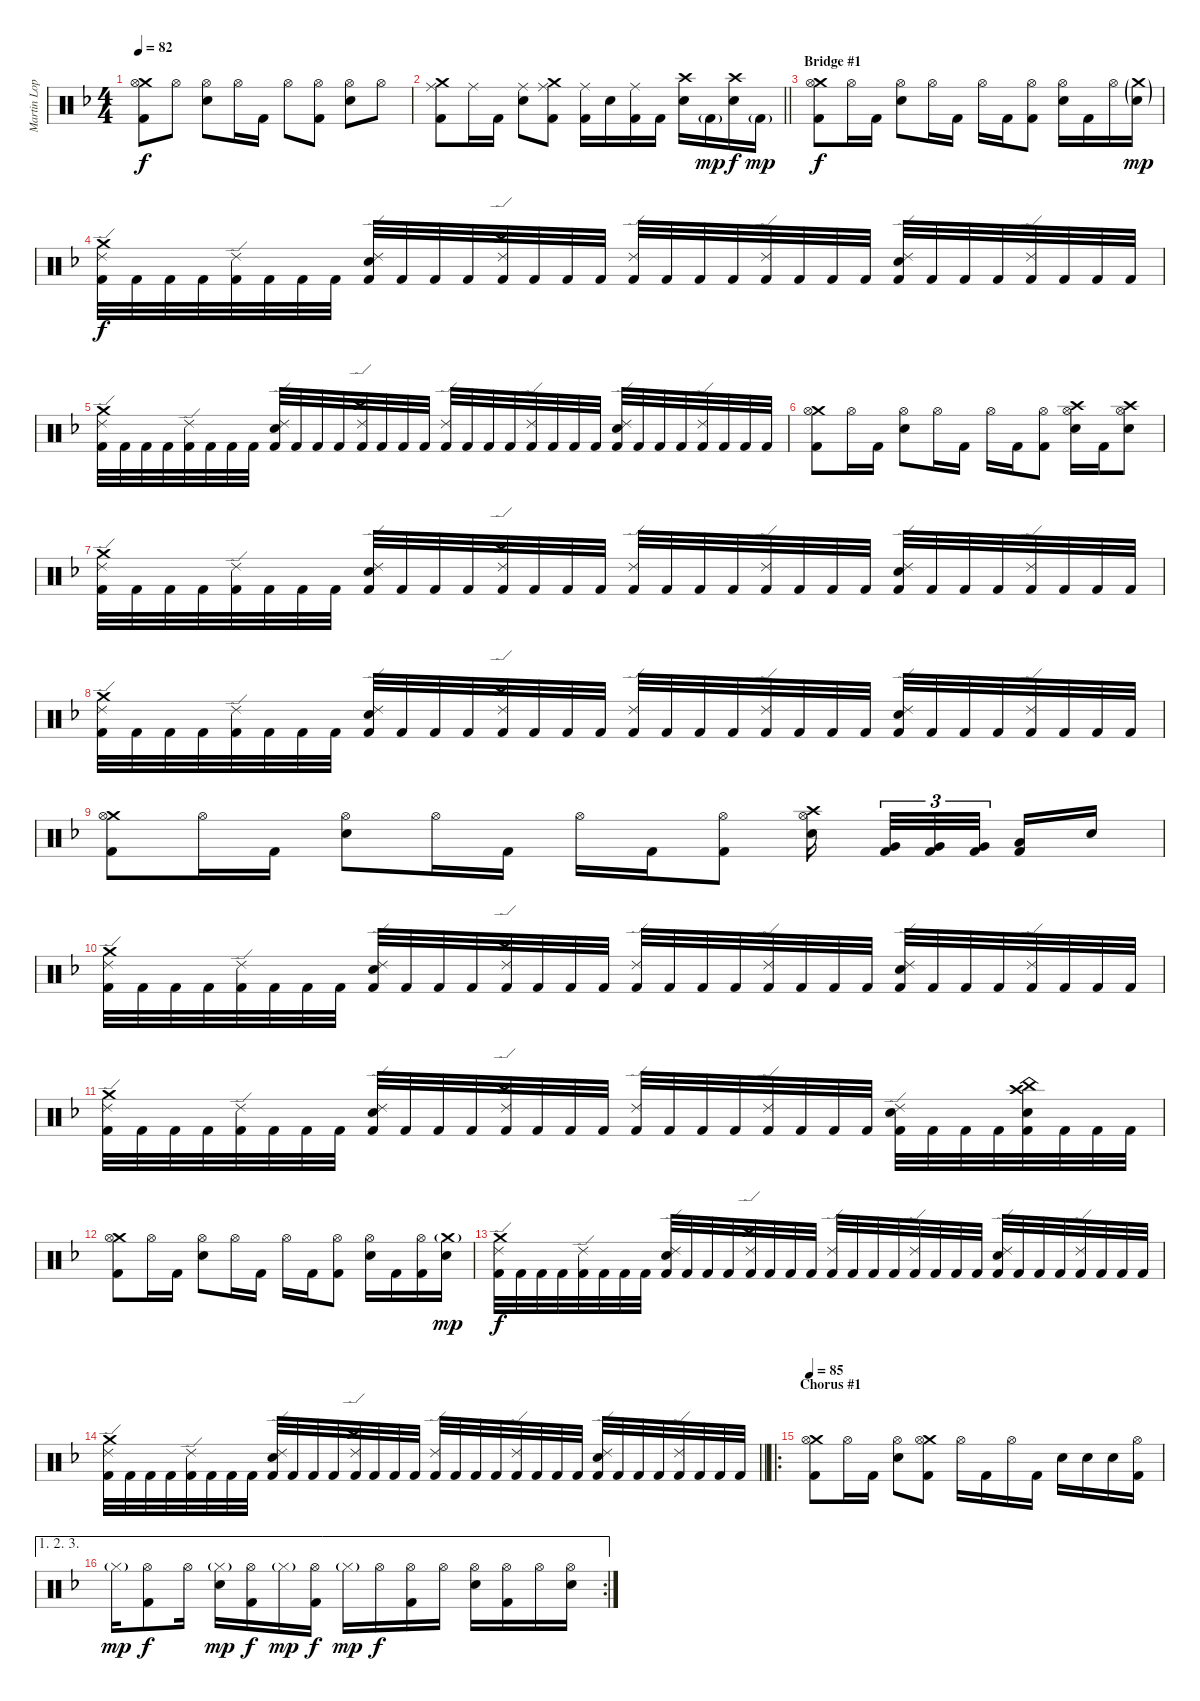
\track ("Martin Lopez - Drums" "Martin Lop") {instrument percussion}
\staff {score}
\articulation defaults
\ts (4 4)
\tempo 82
\clef neutral
\ks f
("Crash medium (hit)" "Hi-Hat (open)" "Kick (hit) 2").8{dy f} "Hi-Hat (open)".8 ("Hi-Hat (open)" "Electric Snare (hit)").8 "Hi-Hat (open)".16 "Kick (hit) 2".16 "Hi-Hat (open)".8 ("Hi-Hat (open)" "Kick (hit) 2").8 ("Hi-Hat (open)" "Electric Snare (hit)").8 "Hi-Hat (open)".8 |
\barLineRight lightlight
("Crash medium (hit)" "Ride (middle)" "Kick (hit) 2").8 "Ride (middle)".16 "Kick (hit) 2".16 ("Ride (middle)" "Electric Snare (hit)").8 ("Crash medium (hit)" "Ride (middle)" "Kick (hit) 2").8 ("Ride (middle)" "Kick (hit) 2").16 "Electric Snare (hit)".16 ("Ride (middle)" "Kick (hit) 2").16 "Kick (hit) 2".16 ("Crash high (hit)" "Electric Snare (hit)").16 "Kick (hit) 2"{g}.16{dy mp} ("Crash high (hit)" "Electric Snare (hit)").16{dy f} "Kick (hit) 2"{g}.16{dy mp} |
\section ("" "Bridge #1")
("Crash medium (hit)" "Hi-Hat (open)" "Kick (hit) 2").8{dy f} "Hi-Hat (open)".16 "Kick (hit) 2".16 ("Hi-Hat (open)" "Electric Snare (hit)").8 "Hi-Hat (open)".16 "Kick (hit) 2".16 "Hi-Hat (open)".16 "Kick (hit) 2".16 ("Hi-Hat (open)" "Kick (hit) 2").8 ("Hi-Hat (open)" "Electric Snare (hit)").16 "Kick (hit) 2".16 "Hi-Hat (open)".16 ("Crash medium (hit)"{g} "Electric Snare (hit)"{g}).16{dy mp} |
("Crash medium (hit)" "Ride (edge) 2" "Kick (hit) 2").32{dy f} "Kick (hit) 2".32 "Kick (hit) 2".32 "Kick (hit) 2".32 ("Ride (edge) 2" "Kick (hit) 2").32 "Kick (hit) 2".32 "Kick (hit) 2".32 "Kick (hit) 2".32 ("Ride (edge) 2" "Electric Snare (hit)" "Kick (hit) 2").32 "Kick (hit) 2".32 "Kick (hit) 2".32 "Kick (hit) 2".32 ("Crash high (hit)" "Ride (edge) 2" "Kick (hit) 2").32 "Kick (hit) 2".32 "Kick (hit) 2".32 "Kick (hit) 2".32 ("Ride (edge) 2" "Kick (hit) 2").32 "Kick (hit) 2".32 "Kick (hit) 2".32 "Kick (hit) 2".32 ("Ride (edge) 2" "Kick (hit) 2").32 "Kick (hit) 2".32 "Kick (hit) 2".32 "Kick (hit) 2".32 ("Ride (edge) 2" "Electric Snare (hit)" "Kick (hit) 2").32 "Kick (hit) 2".32 "Kick (hit) 2".32 "Kick (hit) 2".32 ("Ride (edge) 2" "Kick (hit) 2").32 "Kick (hit) 2".32 "Kick (hit) 2".32 "Kick (hit) 2".32 |
("Crash medium (hit)" "Ride (edge) 2" "Kick (hit) 2").32 "Kick (hit) 2".32 "Kick (hit) 2".32 "Kick (hit) 2".32 ("Ride (edge) 2" "Kick (hit) 2").32 "Kick (hit) 2".32 "Kick (hit) 2".32 "Kick (hit) 2".32 ("Ride (edge) 2" "Electric Snare (hit)" "Kick (hit) 2").32 "Kick (hit) 2".32 "Kick (hit) 2".32 "Kick (hit) 2".32 ("Crash high (hit)" "Ride (edge) 2" "Kick (hit) 2").32 "Kick (hit) 2".32 "Kick (hit) 2".32 "Kick (hit) 2".32 ("Ride (edge) 2" "Kick (hit) 2").32 "Kick (hit) 2".32 "Kick (hit) 2".32 "Kick (hit) 2".32 ("Ride (edge) 2" "Kick (hit) 2").32 "Kick (hit) 2".32 "Kick (hit) 2".32 "Kick (hit) 2".32 ("Ride (edge) 2" "Electric Snare (hit)" "Kick (hit) 2").32 "Kick (hit) 2".32 "Kick (hit) 2".32 "Kick (hit) 2".32 ("Ride (edge) 2" "Kick (hit) 2").32 "Kick (hit) 2".32 "Kick (hit) 2".32 "Kick (hit) 2".32 |
("Crash medium (hit)" "Hi-Hat (open)" "Kick (hit) 2").8 "Hi-Hat (open)".16 "Kick (hit) 2".16 ("Hi-Hat (open)" "Electric Snare (hit)").8 "Hi-Hat (open)".16 "Kick (hit) 2".16 "Hi-Hat (open)".16 "Kick (hit) 2".16 ("Hi-Hat (open)" "Kick (hit) 2").8 ("Crash high (hit)" "Hi-Hat (open)" "Electric Snare (hit)").16 "Kick (hit) 2".16 ("Crash high (hit)" "Hi-Hat (open)" "Electric Snare (hit)").8 |
("Crash medium (hit)" "Ride (edge) 2" "Kick (hit) 2").32 "Kick (hit) 2".32 "Kick (hit) 2".32 "Kick (hit) 2".32 ("Ride (edge) 2" "Kick (hit) 2").32 "Kick (hit) 2".32 "Kick (hit) 2".32 "Kick (hit) 2".32 ("Ride (edge) 2" "Electric Snare (hit)" "Kick (hit) 2").32 "Kick (hit) 2".32 "Kick (hit) 2".32 "Kick (hit) 2".32 ("Crash high (hit)" "Ride (edge) 2" "Kick (hit) 2").32 "Kick (hit) 2".32 "Kick (hit) 2".32 "Kick (hit) 2".32 ("Ride (edge) 2" "Kick (hit) 2").32 "Kick (hit) 2".32 "Kick (hit) 2".32 "Kick (hit) 2".32 ("Ride (edge) 2" "Kick (hit) 2").32 "Kick (hit) 2".32 "Kick (hit) 2".32 "Kick (hit) 2".32 ("Ride (edge) 2" "Electric Snare (hit)" "Kick (hit) 2").32 "Kick (hit) 2".32 "Kick (hit) 2".32 "Kick (hit) 2".32 ("Ride (edge) 2" "Kick (hit) 2").32 "Kick (hit) 2".32 "Kick (hit) 2".32 "Kick (hit) 2".32 |
("Crash medium (hit)" "Ride (edge) 2" "Kick (hit) 2").32 "Kick (hit) 2".32 "Kick (hit) 2".32 "Kick (hit) 2".32 ("Ride (edge) 2" "Kick (hit) 2").32 "Kick (hit) 2".32 "Kick (hit) 2".32 "Kick (hit) 2".32 ("Ride (edge) 2" "Electric Snare (hit)" "Kick (hit) 2").32 "Kick (hit) 2".32 "Kick (hit) 2".32 "Kick (hit) 2".32 ("Crash high (hit)" "Ride (edge) 2" "Kick (hit) 2").32 "Kick (hit) 2".32 "Kick (hit) 2".32 "Kick (hit) 2".32 ("Ride (edge) 2" "Kick (hit) 2").32 "Kick (hit) 2".32 "Kick (hit) 2".32 "Kick (hit) 2".32 ("Ride (edge) 2" "Kick (hit) 2").32 "Kick (hit) 2".32 "Kick (hit) 2".32 "Kick (hit) 2".32 ("Ride (edge) 2" "Electric Snare (hit)" "Kick (hit) 2").32 "Kick (hit) 2".32 "Kick (hit) 2".32 "Kick (hit) 2".32 ("Ride (edge) 2" "Kick (hit) 2").32 "Kick (hit) 2".32 "Kick (hit) 2".32 "Kick (hit) 2".32 |
("Crash medium (hit)" "Hi-Hat (open)" "Kick (hit) 2").8 "Hi-Hat (open)".16 "Kick (hit) 2".16 ("Hi-Hat (open)" "Electric Snare (hit)").8 "Hi-Hat (open)".16 "Kick (hit) 2".16 "Hi-Hat (open)".16 "Kick (hit) 2".16 ("Hi-Hat (open)" "Kick (hit) 2").8 ("Crash high (hit)" "Hi-Hat (open)" "Electric Snare (hit)").16{beam splitsecondary} ("Very Low Tom (hit)" "Kick (hit) 2").32{tu (3 2)} ("Very Low Tom (hit)" "Kick (hit) 2").32{tu (3 2)} ("Very Low Tom (hit)" "Kick (hit) 2").32{tu (3 2) beam splitsecondary} ("Low Floor Tom (hit)" "Kick (hit) 2").16 "Electric Snare (hit)".16 |
("Crash medium (hit)" "Ride (edge) 2" "Kick (hit) 2").32 "Kick (hit) 2".32 "Kick (hit) 2".32 "Kick (hit) 2".32 ("Ride (edge) 2" "Kick (hit) 2").32 "Kick (hit) 2".32 "Kick (hit) 2".32 "Kick (hit) 2".32 ("Ride (edge) 2" "Electric Snare (hit)" "Kick (hit) 2").32 "Kick (hit) 2".32 "Kick (hit) 2".32 "Kick (hit) 2".32 ("Crash high (hit)" "Ride (edge) 2" "Kick (hit) 2").32 "Kick (hit) 2".32 "Kick (hit) 2".32 "Kick (hit) 2".32 ("Ride (edge) 2" "Kick (hit) 2").32 "Kick (hit) 2".32 "Kick (hit) 2".32 "Kick (hit) 2".32 ("Ride (edge) 2" "Kick (hit) 2").32 "Kick (hit) 2".32 "Kick (hit) 2".32 "Kick (hit) 2".32 ("Ride (edge) 2" "Electric Snare (hit)" "Kick (hit) 2").32 "Kick (hit) 2".32 "Kick (hit) 2".32 "Kick (hit) 2".32 ("Ride (edge) 2" "Kick (hit) 2").32 "Kick (hit) 2".32 "Kick (hit) 2".32 "Kick (hit) 2".32 |
("Crash medium (hit)" "Ride (edge) 2" "Kick (hit) 2").32 "Kick (hit) 2".32 "Kick (hit) 2".32 "Kick (hit) 2".32 ("Ride (edge) 2" "Kick (hit) 2").32 "Kick (hit) 2".32 "Kick (hit) 2".32 "Kick (hit) 2".32 ("Ride (edge) 2" "Electric Snare (hit)" "Kick (hit) 2").32 "Kick (hit) 2".32 "Kick (hit) 2".32 "Kick (hit) 2".32 ("Crash high (hit)" "Ride (edge) 2" "Kick (hit) 2").32 "Kick (hit) 2".32 "Kick (hit) 2".32 "Kick (hit) 2".32 ("Ride (edge) 2" "Kick (hit) 2").32 "Kick (hit) 2".32 "Kick (hit) 2".32 "Kick (hit) 2".32 ("Ride (edge) 2" "Kick (hit) 2").32 "Kick (hit) 2".32 "Kick (hit) 2".32 "Kick (hit) 2".32 ("Ride (edge) 2" "Electric Snare (hit)" "Kick (hit) 2").32 "Kick (hit) 2".32 "Kick (hit) 2".32 "Kick (hit) 2".32 ("Crash high (hit)" "China (hit)" "Electric Snare (hit)" "Kick (hit) 2").32 "Kick (hit) 2".32 "Kick (hit) 2".32 "Kick (hit) 2".32 |
("Crash medium (hit)" "Hi-Hat (open)" "Kick (hit) 2").8 "Hi-Hat (open)".16 "Kick (hit) 2".16 ("Hi-Hat (open)" "Electric Snare (hit)").8 "Hi-Hat (open)".16 "Kick (hit) 2".16 "Hi-Hat (open)".16 "Kick (hit) 2".16 ("Hi-Hat (open)" "Kick (hit) 2").8 ("Hi-Hat (open)" "Electric Snare (hit)").16 "Kick (hit) 2".16 ("Hi-Hat (open)" "Kick (hit) 2").16 ("Crash medium (hit)"{g} "Electric Snare (hit)").16{dy mp} |
("Crash medium (hit)" "Ride (edge) 2" "Kick (hit) 2").32{dy f} "Kick (hit) 2".32 "Kick (hit) 2".32 "Kick (hit) 2".32 ("Ride (edge) 2" "Kick (hit) 2").32 "Kick (hit) 2".32 "Kick (hit) 2".32 "Kick (hit) 2".32 ("Ride (edge) 2" "Electric Snare (hit)" "Kick (hit) 2").32 "Kick (hit) 2".32 "Kick (hit) 2".32 "Kick (hit) 2".32 ("Crash high (hit)" "Ride (edge) 2" "Kick (hit) 2").32 "Kick (hit) 2".32 "Kick (hit) 2".32 "Kick (hit) 2".32 ("Ride (edge) 2" "Kick (hit) 2").32 "Kick (hit) 2".32 "Kick (hit) 2".32 "Kick (hit) 2".32 ("Ride (edge) 2" "Kick (hit) 2").32 "Kick (hit) 2".32 "Kick (hit) 2".32 "Kick (hit) 2".32 ("Ride (edge) 2" "Electric Snare (hit)" "Kick (hit) 2").32 "Kick (hit) 2".32 "Kick (hit) 2".32 "Kick (hit) 2".32 ("Ride (edge) 2" "Kick (hit) 2").32 "Kick (hit) 2".32 "Kick (hit) 2".32 "Kick (hit) 2".32 |
\barLineRight lightlight
("Crash medium (hit)" "Ride (edge) 2" "Kick (hit) 2").32 "Kick (hit) 2".32 "Kick (hit) 2".32 "Kick (hit) 2".32 ("Ride (edge) 2" "Kick (hit) 2").32 "Kick (hit) 2".32 "Kick (hit) 2".32 "Kick (hit) 2".32 ("Ride (edge) 2" "Electric Snare (hit)" "Kick (hit) 2").32 "Kick (hit) 2".32 "Kick (hit) 2".32 "Kick (hit) 2".32 ("Crash high (hit)" "Ride (edge) 2" "Kick (hit) 2").32 "Kick (hit) 2".32 "Kick (hit) 2".32 "Kick (hit) 2".32 ("Ride (edge) 2" "Kick (hit) 2").32 "Kick (hit) 2".32 "Kick (hit) 2".32 "Kick (hit) 2".32 ("Ride (edge) 2" "Kick (hit) 2").32 "Kick (hit) 2".32 "Kick (hit) 2".32 "Kick (hit) 2".32 ("Ride (edge) 2" "Electric Snare (hit)" "Kick (hit) 2").32 "Kick (hit) 2".32 "Kick (hit) 2".32 "Kick (hit) 2".32 ("Ride (edge) 2" "Kick (hit) 2").32 "Kick (hit) 2".32 "Kick (hit) 2".32 "Kick (hit) 2".32 |
\ro
\section ("" "Chorus #1")
\tempo 85
("Crash medium (hit)" "Hi-Hat (open)" "Kick (hit) 2").8 "Hi-Hat (open)".16 "Kick (hit) 2".16 ("Hi-Hat (open)" "Electric Snare (hit)").8 ("Crash medium (hit)" "Hi-Hat (open)" "Kick (hit) 2").8 "Hi-Hat (open)".16 "Kick (hit) 2".16 "Hi-Hat (open)".16 "Kick (hit) 2".16 "Electric Snare (hit)".16 "Electric Snare (hit)".16 "Electric Snare (hit)".16 ("Hi-Hat (open)" "Kick (hit) 2").16 |
\ae (1 2 3)
\rc 2 "Hi-Hat (closed)"{g}.16{dy mp}
("Hi-Hat (open)" "Kick (hit) 2").8{dy f} "Hi-Hat (open)".16 ("Hi-Hat (closed)"{g} "Electric Snare (hit)").16{dy mp} ("Hi-Hat (open)" "Kick (hit) 2").16{dy f} "Hi-Hat (closed)"{g}.16{dy mp} ("Hi-Hat (open)" "Kick (hit) 2").16{dy f} "Hi-Hat (closed)"{g}.16{dy mp} "Hi-Hat (open)".16{dy f} ("Hi-Hat (open)" "Kick (hit) 2").16 "Hi-Hat (open)".16 ("Hi-Hat (open)" "Electric Snare (hit)").16 ("Hi-Hat (open)" "Kick (hit) 2").16 "Hi-Hat (open)".16 ("Hi-Hat (open)" "Electric Snare (hit)").16
